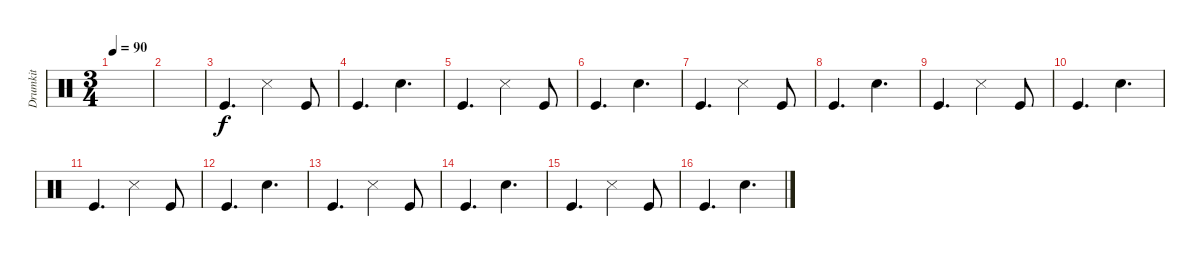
\track ("Drumkit" "Drumkit") {instrument percussion}
\staff {score}
\articulation defaults
\ts (3 4)
\tempo 90
\clef neutral
\ks c
|
|
"Kick (hit)".4{d} "Snare (side stick) 3".4 "Kick (hit)".8 |
"Kick (hit)".4{d} "Snare (hit) 2".4{d} |
"Kick (hit)".4{d} "Snare (side stick) 3".4 "Kick (hit)".8 |
"Kick (hit)".4{d} "Snare (hit) 2".4{d} |
"Kick (hit)".4{d} "Snare (side stick) 3".4 "Kick (hit)".8 |
"Kick (hit)".4{d} "Snare (hit) 2".4{d} |
"Kick (hit)".4{d} "Snare (side stick) 3".4 "Kick (hit)".8 |
"Kick (hit)".4{d} "Snare (hit) 2".4{d} |
"Kick (hit)".4{d} "Snare (side stick) 3".4 "Kick (hit)".8 |
"Kick (hit)".4{d} "Snare (hit) 2".4{d} |
"Kick (hit)".4{d} "Snare (side stick) 3".4 "Kick (hit)".8 |
"Kick (hit)".4{d} "Snare (hit) 2".4{d} |
"Kick (hit)".4{d} "Snare (side stick) 3".4 "Kick (hit)".8 |
"Kick (hit)".4{d} "Snare (hit) 2".4{d}
